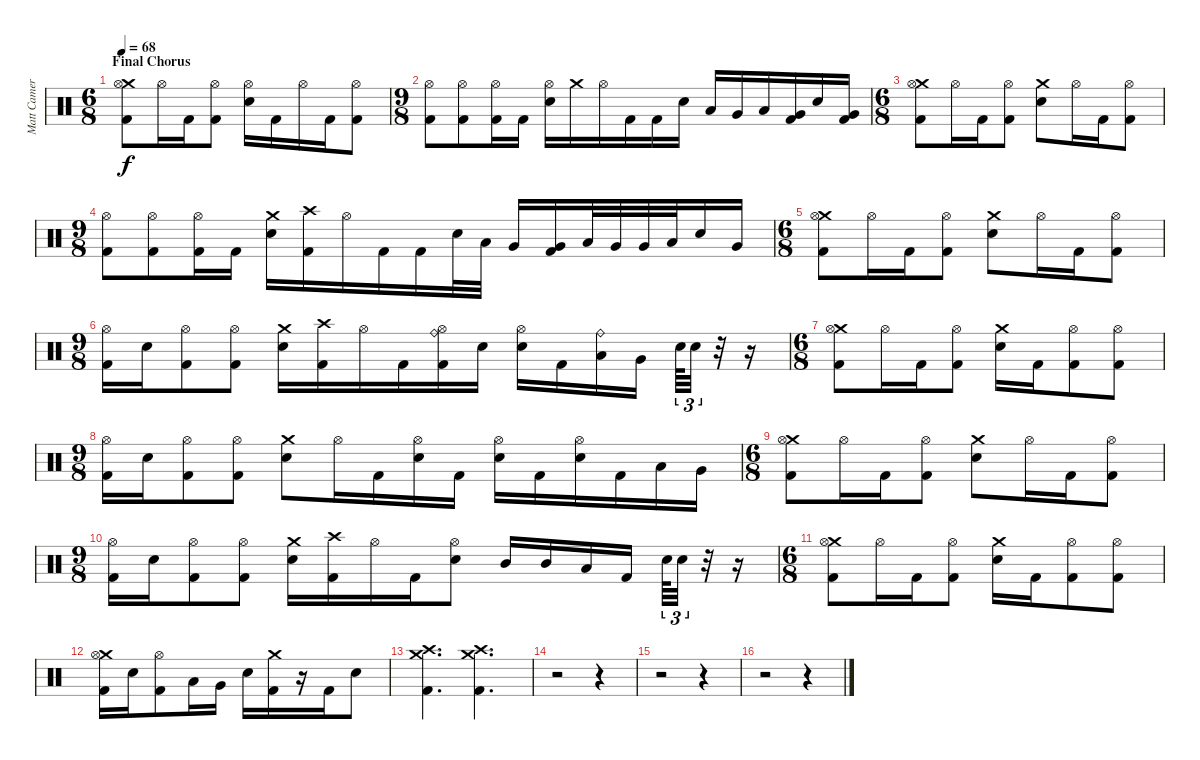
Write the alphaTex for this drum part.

\track ("Matt Cameron" "Matt Camer") {instrument percussion}
\staff {score}
\articulation defaults
\ts (6 8)
\section ("" "Final Chorus")
\tempo 68
\clef neutral
\ks c
("Crash medium (hit)" "Hi-Hat (open)" "Kick (hit) 2").8{dy f} "Hi-Hat (open)".16 "Kick (hit) 2".16 ("Hi-Hat (open)" "Kick (hit) 2").8 ("Hi-Hat (open)" "Electric Snare (hit)").16 "Kick (hit) 2".16 "Hi-Hat (open)".16 "Kick (hit) 2".16 ("Hi-Hat (open)" "Kick (hit) 2").8 |
\ts (9 8)
("Hi-Hat (open)" "Kick (hit) 2").8 ("Hi-Hat (open)" "Kick (hit) 2").8 ("Hi-Hat (open)" "Kick (hit) 2").16 "Kick (hit) 2".16 ("Hi-Hat (open)" "Electric Snare (hit)").16 "Crash medium (hit)".16 "Hi-Hat (open)".16 "Kick (hit) 2".16 "Kick (hit) 2".16 "Electric Snare (hit)".16 "Low Tom (hit)".16 "Very Low Tom (hit)".16 "Low Tom (hit)".16 ("Very Low Tom (hit)" "Kick (hit) 2").16 "Electric Snare (hit)".16 ("Very Low Tom (hit)" "Kick (hit) 2").16 |
\ts (6 8)
("Crash medium (hit)" "Hi-Hat (open)" "Kick (hit) 2").8 "Hi-Hat (open)".16 "Kick (hit) 2".16 ("Hi-Hat (open)" "Kick (hit) 2").8 ("Crash medium (hit)" "Electric Snare (hit)").8 "Hi-Hat (open)".16 "Kick (hit) 2".16 ("Hi-Hat (open)" "Kick (hit) 2").8 |
\ts (9 8)
("Hi-Hat (open)" "Kick (hit) 2").8 ("Hi-Hat (open)" "Kick (hit) 2").8 ("Hi-Hat (open)" "Kick (hit) 2").16 "Kick (hit) 2".16 ("Crash medium (hit)" "Electric Snare (hit)").16 ("Crash high (hit)" "Kick (hit) 2").16 "Hi-Hat (open)".16 "Kick (hit) 2".16 "Kick (hit) 2".16 "Electric Snare (hit)".32 "Low Tom (hit)".32 "Very Low Tom (hit)".16 ("Very Low Tom (hit)" "Kick (hit) 2").16 "Low Tom (hit)".32 "Very Low Tom (hit)".32 "Very Low Tom (hit)".32 "Low Floor Tom (hit)".32 "Electric Snare (hit)".16 "Very Low Tom (hit)".16 |
\ts (6 8)
("Crash medium (hit)" "Hi-Hat (open)" "Kick (hit) 2").8 "Hi-Hat (open)".16 "Kick (hit) 2".16 ("Hi-Hat (open)" "Kick (hit) 2").8 ("Crash medium (hit)" "Electric Snare (hit)").8 "Hi-Hat (open)".16 "Kick (hit) 2".16 ("Hi-Hat (open)" "Kick (hit) 2").8 |
\ts (9 8)
("Hi-Hat (open)" "Kick (hit) 2").16 "Electric Snare (hit)".16 ("Hi-Hat (open)" "Kick (hit) 2").8 ("Hi-Hat (open)" "Kick (hit) 2").8 ("Crash medium (hit)" "Electric Snare (hit)").16 ("Crash high (hit)" "Kick (hit) 2").16 "Hi-Hat (open)".16 "Kick (hit) 2".16 ("Ride (bell)" "Hi-Hat (open)" "Kick (hit) 2").16 "Electric Snare (hit)".16 ("Hi-Hat (open)" "Electric Snare (hit)").16 "Kick (hit) 2".16 ("Ride (bell)" "Low Tom (hit)").16 "Very Low Tom (hit)".16{beam splitsecondary} "Electric Snare (hit)".64{tu (3 2)} "Electric Snare (hit)".32{tu (3 2)} r.32 r.16 |
\ts (6 8)
("Crash medium (hit)" "Hi-Hat (open)" "Kick (hit) 2").8 "Hi-Hat (open)".16 "Kick (hit) 2".16 ("Hi-Hat (open)" "Kick (hit) 2").8 ("Crash medium (hit)" "Electric Snare (hit)").16 "Kick (hit) 2".16 ("Hi-Hat (open)" "Kick (hit) 2").8 ("Hi-Hat (open)" "Kick (hit) 2").8 |
\ts (9 8)
("Hi-Hat (open)" "Kick (hit) 2").16 "Electric Snare (hit)".16 ("Hi-Hat (open)" "Kick (hit) 2").8 ("Hi-Hat (open)" "Kick (hit) 2").8 ("Crash medium (hit)" "Electric Snare (hit)").8 "Hi-Hat (open)".16 "Kick (hit) 2".16 ("Hi-Hat (open)" "Electric Snare (hit)").16 "Kick (hit) 2".16 ("Hi-Hat (open)" "Electric Snare (hit)").16 "Kick (hit) 2".16 ("Hi-Hat (open)" "Electric Snare (hit)").16 "Kick (hit) 2".16 "Low Tom (hit)".16 "Very Low Tom (hit)".16 |
\ts (6 8)
("Crash medium (hit)" "Hi-Hat (open)" "Kick (hit) 2").8 "Hi-Hat (open)".16 "Kick (hit) 2".16 ("Hi-Hat (open)" "Kick (hit) 2").8 ("Crash medium (hit)" "Electric Snare (hit)").8 "Hi-Hat (open)".16 "Kick (hit) 2".16 ("Hi-Hat (open)" "Kick (hit) 2").8 |
\ts (9 8)
("Hi-Hat (open)" "Kick (hit) 2").16 "Electric Snare (hit)".16 ("Hi-Hat (open)" "Kick (hit) 2").8 ("Hi-Hat (open)" "Kick (hit) 2").8 ("Crash medium (hit)" "Electric Snare (hit)").16 ("Crash high (hit)" "Kick (hit) 2").16 "Hi-Hat (open)".16 "Kick (hit) 2".16 ("Hi-Hat (open)" "Electric Snare (hit)").8 "Mid Tom (hit)".16 "Mid Tom (hit)".16 "Low Tom (hit)".16 "Kick (hit) 2".16{beam splitsecondary} "Electric Snare (hit)".64{tu (3 2)} "Electric Snare (hit)".32{tu (3 2)} r.32 r.16 |
\ts (6 8)
("Crash medium (hit)" "Hi-Hat (open)" "Kick (hit) 2").8 "Hi-Hat (open)".16 "Kick (hit) 2".16 ("Hi-Hat (open)" "Kick (hit) 2").8 ("Crash medium (hit)" "Electric Snare (hit)").16 "Kick (hit) 2".16 ("Hi-Hat (open)" "Kick (hit) 2").8 ("Hi-Hat (open)" "Kick (hit) 2").8 |
("Crash medium (hit)" "Hi-Hat (open)" "Kick (hit) 2").16 "Electric Snare (hit)".16 ("Hi-Hat (open)" "Kick (hit) 2").8 "Low Tom (hit)".16 "Very Low Tom (hit)".16 "Electric Snare (hit)".16 ("Crash medium (hit)" "Kick (hit) 2").16 r.16 "Kick (hit) 2".16 "Electric Snare (hit)".8 |
("Crash high (hit)" "Crash medium (hit)" "Kick (hit) 2").4{d} ("Crash high (hit)" "Crash medium (hit)" "Kick (hit) 2").4{d} |
r.2 r.4 |
r.2 r.4 |
r.2 r.4
